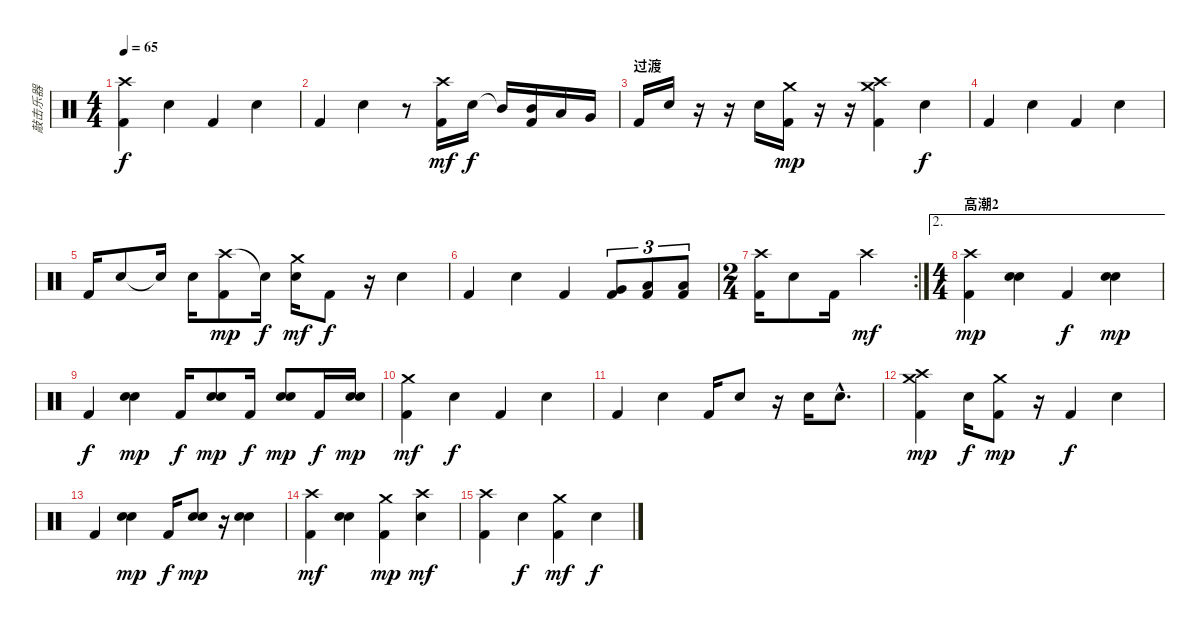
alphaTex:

\track ("敲击乐器" "敲击乐器") {instrument percussion}
\staff {score}
\articulation defaults
\ts (4 4)
\tempo 65
\clef neutral
\ks c
("Crash high (hit)" "Kick (hit) 2").4{dy f} "Snare (hit) 2".4 "Kick (hit) 2".4 "Snare (hit) 2".4 |
"Kick (hit) 2".4 "Snare (hit) 2".4 r.8 ("Crash high (hit)" "Kick (hit) 2").16{dy mf} "Snare (hit) 2".16{dy f} "Mid Tom (hit)"{t}.16 ("Mid Tom (hit)" "Kick (hit) 2").16 "Low Tom (hit)".16 "Very Low Tom (hit)".16 |
\section ("" "过渡")
"Kick (hit) 2".16 "Snare (hit) 2".16 r.16 r.16 "Snare (hit) 2".16 ("Kick (hit) 2" "Crash medium (hit)").16{dy mp} r.16 r.16 ("Crash high (hit)" "Crash medium (hit)" "Kick (hit) 2").4 "Snare (hit) 2".4{dy f} |
"Kick (hit) 2".4 "Snare (hit) 2".4 "Kick (hit) 2".4 "Snare (hit) 2".4 |
"Kick (hit) 2".16 "Snare (hit) 2".8 "Snare (hit) 2"{t}.16 "Snare (hit) 2".16 ("Crash high (hit)" "Kick (hit) 2").8{dy mp} "Snare (hit)"{t}.16{dy f} ("Crash medium (hit)" "Snare (hit) 2").16{dy mf} "Kick (hit) 2".8{dy f} r.16 "Snare (hit) 2".4 |
"Kick (hit) 2".4 "Snare (hit) 2".4 "Kick (hit) 2".4 ("Very Low Tom (hit)" "Kick (hit) 2").8{tu (3 2)} ("Low Tom (hit)" "Kick (hit) 2").8{tu (3 2)} ("Low Tom (hit)" "Kick (hit) 2").8{tu (3 2)} |
\rc 2
\ts (2 4)
("Kick (hit) 2" "Crash high (hit)").16 "Snare (hit) 2".8 "Kick (hit) 2".16 "Crash high (hit)".4{dy mf} |
\ae 2
\ts (4 4)
\section ("" "高潮2")
("Kick (hit) 2" "Crash high (hit)").4{dy mp} ("Snare (hit) 2" "Electric Snare (hit)").4 "Kick (hit) 2".4{dy f} ("Snare (hit) 2" "Electric Snare (hit)").4{dy mp} |
"Kick (hit) 2".4{dy f} ("Electric Snare (hit)" "Snare (hit) 2").4{dy mp} "Kick (hit) 2".16{dy f} ("Electric Snare (hit)" "Snare (hit) 2").8{dy mp} "Kick (hit) 2".16{dy f} ("Electric Snare (hit)" "Snare (hit) 2").8{dy mp} "Kick (hit) 2".16{dy f} ("Electric Snare (hit)" "Snare (hit) 2").16{dy mp} |
("Crash medium (hit)" "Kick (hit) 2").4{dy mf} "Snare (hit) 2".4{dy f} "Kick (hit) 2".4 "Snare (hit) 2".4 |
"Kick (hit) 2".4 "Snare (hit) 2".4 "Kick (hit) 2".16 "Snare (hit) 2".8 r.16 "Snare (hit) 2".16 "Snare (hit) 2"{hac}.8{d} |
("Crash high (hit)" "Crash medium (hit)" "Kick (hit) 2").4{dy mp} "Snare (hit) 2".16{dy f} ("Crash medium (hit)" "Kick (hit) 2").8{dy mp} r.16 "Kick (hit) 2".4{dy f} "Snare (hit) 2".4 |
"Kick (hit) 2".4 ("Electric Snare (hit)" "Snare (hit) 2").4{dy mp} "Kick (hit) 2".16{dy f} ("Electric Snare (hit)" "Snare (hit) 2").8{dy mp} r.16 ("Electric Snare (hit)" "Snare (hit) 2").4 |
("Crash high (hit)" "Kick (hit) 2").4{dy mf} ("Electric Snare (hit)" "Snare (hit) 2").4 ("Crash medium (hit)" "Kick (hit) 2").4{dy mp} ("Crash high (hit)" "Snare (hit) 2").4{dy mf} |
("Crash high (hit)" "Kick (hit) 2").4 "Snare (hit) 2".4{dy f} ("Crash medium (hit)" "Kick (hit) 2").4{dy mf} "Snare (hit) 2".4{dy f}
